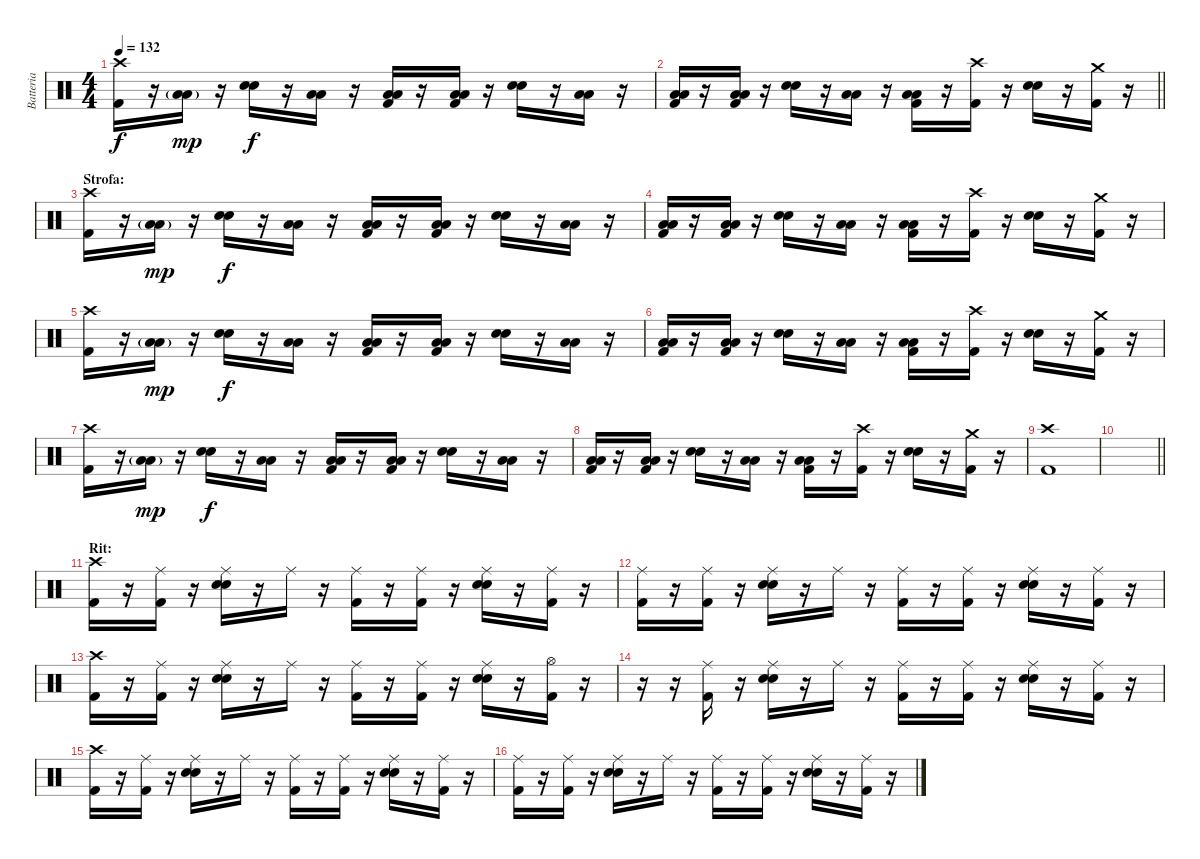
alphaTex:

\track ("Batteria" "Batteria") {instrument percussion}
\staff {score}
\articulation defaults
\ts (4 4)
\tempo 132
\clef neutral
\ks c
("Kick (hit) 2" "Crash high (hit)").16{dy f} r.16 ("Low Floor Tom (hit)"{g} "Low Floor Tom (hit)"{g}).16{dy mp} r.16 ("Snare (hit) 2" "Snare (hit) 2").16{dy f} r.16 ("Low Floor Tom (hit)" "Low Floor Tom (hit)").16 r.16 ("Kick (hit) 2" "Low Floor Tom (hit)" "Low Floor Tom (hit)").16 r.16 ("Kick (hit) 2" "Low Floor Tom (hit)" "Low Floor Tom (hit)").16 r.16 ("Snare (hit) 2" "Snare (hit) 2").16 r.16 ("Low Floor Tom (hit)" "Low Floor Tom (hit)").16 r.16 |
\barLineRight lightlight
("Kick (hit) 2" "Low Floor Tom (hit)" "Low Floor Tom (hit)").16 r.16 ("Kick (hit) 2" "Low Floor Tom (hit)" "Low Floor Tom (hit)").16 r.16 ("Snare (hit) 2" "Snare (hit) 2").16 r.16 ("Low Floor Tom (hit)" "Low Floor Tom (hit)").16 r.16 ("Kick (hit) 2" "Low Floor Tom (hit)" "Low Floor Tom (hit)").16 r.16 ("Kick (hit) 2" "Crash high (hit)").16 r.16 ("Snare (hit) 2" "Snare (hit) 2").16 r.16 ("Kick (hit) 2" "Crash medium (hit)").16 r.16 |
\section ("" "Strofa:")
("Kick (hit) 2" "Crash high (hit)").16 r.16 ("Low Floor Tom (hit)"{g} "Low Floor Tom (hit)"{g}).16{dy mp} r.16 ("Snare (hit) 2" "Snare (hit) 2").16{dy f} r.16 ("Low Floor Tom (hit)" "Low Floor Tom (hit)").16 r.16 ("Kick (hit) 2" "Low Floor Tom (hit)" "Low Floor Tom (hit)").16 r.16 ("Kick (hit) 2" "Low Floor Tom (hit)" "Low Floor Tom (hit)").16 r.16 ("Snare (hit) 2" "Snare (hit) 2").16 r.16 ("Low Floor Tom (hit)" "Low Floor Tom (hit)").16 r.16 |
("Kick (hit) 2" "Low Floor Tom (hit)" "Low Floor Tom (hit)").16 r.16 ("Kick (hit) 2" "Low Floor Tom (hit)" "Low Floor Tom (hit)").16 r.16 ("Snare (hit) 2" "Snare (hit) 2").16 r.16 ("Low Floor Tom (hit)" "Low Floor Tom (hit)").16 r.16 ("Kick (hit) 2" "Low Floor Tom (hit)" "Low Floor Tom (hit)").16 r.16 ("Kick (hit) 2" "Crash high (hit)").16 r.16 ("Snare (hit) 2" "Snare (hit) 2").16 r.16 ("Kick (hit) 2" "Crash medium (hit)").16 r.16 |
("Kick (hit) 2" "Crash high (hit)").16 r.16 ("Low Floor Tom (hit)"{g} "Low Floor Tom (hit)"{g}).16{dy mp} r.16 ("Snare (hit) 2" "Snare (hit) 2").16{dy f} r.16 ("Low Floor Tom (hit)" "Low Floor Tom (hit)").16 r.16 ("Kick (hit) 2" "Low Floor Tom (hit)" "Low Floor Tom (hit)").16 r.16 ("Kick (hit) 2" "Low Floor Tom (hit)" "Low Floor Tom (hit)").16 r.16 ("Snare (hit) 2" "Snare (hit) 2").16 r.16 ("Low Floor Tom (hit)" "Low Floor Tom (hit)").16 r.16 |
("Kick (hit) 2" "Low Floor Tom (hit)" "Low Floor Tom (hit)").16 r.16 ("Kick (hit) 2" "Low Floor Tom (hit)" "Low Floor Tom (hit)").16 r.16 ("Snare (hit) 2" "Snare (hit) 2").16 r.16 ("Low Floor Tom (hit)" "Low Floor Tom (hit)").16 r.16 ("Kick (hit) 2" "Low Floor Tom (hit)" "Low Floor Tom (hit)").16 r.16 ("Kick (hit) 2" "Crash high (hit)").16 r.16 ("Snare (hit) 2" "Snare (hit) 2").16 r.16 ("Kick (hit) 2" "Crash medium (hit)").16 r.16 |
("Kick (hit) 2" "Crash high (hit)").16 r.16 ("Low Floor Tom (hit)"{g} "Low Floor Tom (hit)"{g}).16{dy mp} r.16 ("Snare (hit) 2" "Snare (hit) 2").16{dy f} r.16 ("Low Floor Tom (hit)" "Low Floor Tom (hit)").16 r.16 ("Kick (hit) 2" "Low Floor Tom (hit)" "Low Floor Tom (hit)").16 r.16 ("Kick (hit) 2" "Low Floor Tom (hit)" "Low Floor Tom (hit)").16 r.16 ("Snare (hit) 2" "Snare (hit) 2").16 r.16 ("Low Floor Tom (hit)" "Low Floor Tom (hit)").16 r.16 |
("Kick (hit) 2" "Low Floor Tom (hit)" "Low Floor Tom (hit)").16 r.16 ("Kick (hit) 2" "Low Floor Tom (hit)" "Low Floor Tom (hit)").16 r.16 ("Snare (hit) 2" "Snare (hit) 2").16 r.16 ("Low Floor Tom (hit)" "Low Floor Tom (hit)").16 r.16 ("Kick (hit) 2" "Low Floor Tom (hit)" "Low Floor Tom (hit)").16 r.16 ("Kick (hit) 2" "Crash high (hit)").16 r.16 ("Snare (hit) 2" "Snare (hit) 2").16 r.16 ("Kick (hit) 2" "Crash medium (hit)").16 r.16 |
("Kick (hit) 2" "Crash high (hit)").1 |
\barLineRight lightlight
|
\section ("" "Rit:")
("Kick (hit) 2" "Crash high (hit)").16 r.16 ("Kick (hit) 2" "Ride (middle)").16 r.16 ("Snare (hit) 2" "Snare (hit) 2" "Ride (middle)").16 r.16 "Ride (middle)".16 r.16 ("Kick (hit) 2" "Ride (middle)").16 r.16 ("Kick (hit) 2" "Ride (middle)").16 r.16 ("Snare (hit) 2" "Snare (hit) 2" "Ride (middle)").16 r.16 ("Kick (hit) 2" "Ride (middle)").16 r.16 |
("Kick (hit) 2" "Ride (middle)").16 r.16 ("Kick (hit) 2" "Ride (middle)").16 r.16 ("Snare (hit) 2" "Snare (hit) 2" "Ride (middle)").16 r.16 "Ride (middle)".16 r.16 ("Kick (hit) 2" "Ride (middle)").16 r.16 ("Kick (hit) 2" "Ride (middle)").16 r.16 ("Snare (hit) 2" "Snare (hit) 2" "Ride (middle)").16 r.16 ("Kick (hit) 2" "Ride (middle)").16 r.16 |
("Kick (hit) 2" "Crash high (hit)").16 r.16 ("Kick (hit) 2" "Ride (middle)").16 r.16 ("Snare (hit) 2" "Snare (hit) 2" "Ride (middle)").16 r.16 "Ride (middle)".16 r.16 ("Kick (hit) 2" "Ride (middle)").16 r.16 ("Kick (hit) 2" "Ride (middle)").16 r.16 ("Snare (hit) 2" "Snare (hit) 2" "Ride (middle)").16 r.16 ("Kick (hit) 2" "Hi-Hat (open)").16 r.16 |
r.16 r.16 ("Kick (hit) 2" "Ride (middle)").16 r.16 ("Snare (hit) 2" "Snare (hit) 2" "Ride (middle)").16 r.16 "Ride (middle)".16 r.16 ("Kick (hit) 2" "Ride (middle)").16 r.16 ("Kick (hit) 2" "Ride (middle)").16 r.16 ("Snare (hit) 2" "Snare (hit) 2" "Ride (middle)").16 r.16 ("Kick (hit) 2" "Ride (middle)").16 r.16 |
("Kick (hit) 2" "Crash high (hit)").16 r.16 ("Kick (hit) 2" "Ride (middle)").16 r.16 ("Snare (hit) 2" "Snare (hit) 2" "Ride (middle)").16 r.16 "Ride (middle)".16 r.16 ("Kick (hit) 2" "Ride (middle)").16 r.16 ("Kick (hit) 2" "Ride (middle)").16 r.16 ("Snare (hit) 2" "Snare (hit) 2" "Ride (middle)").16 r.16 ("Kick (hit) 2" "Ride (middle)").16 r.16 |
("Kick (hit) 2" "Ride (middle)").16 r.16 ("Kick (hit) 2" "Ride (middle)").16 r.16 ("Snare (hit) 2" "Snare (hit) 2" "Ride (middle)").16 r.16 "Ride (middle)".16 r.16 ("Kick (hit) 2" "Ride (middle)").16 r.16 ("Kick (hit) 2" "Ride (middle)").16 r.16 ("Snare (hit) 2" "Snare (hit) 2" "Ride (middle)").16 r.16 ("Kick (hit) 2" "Ride (middle)").16 r.16
